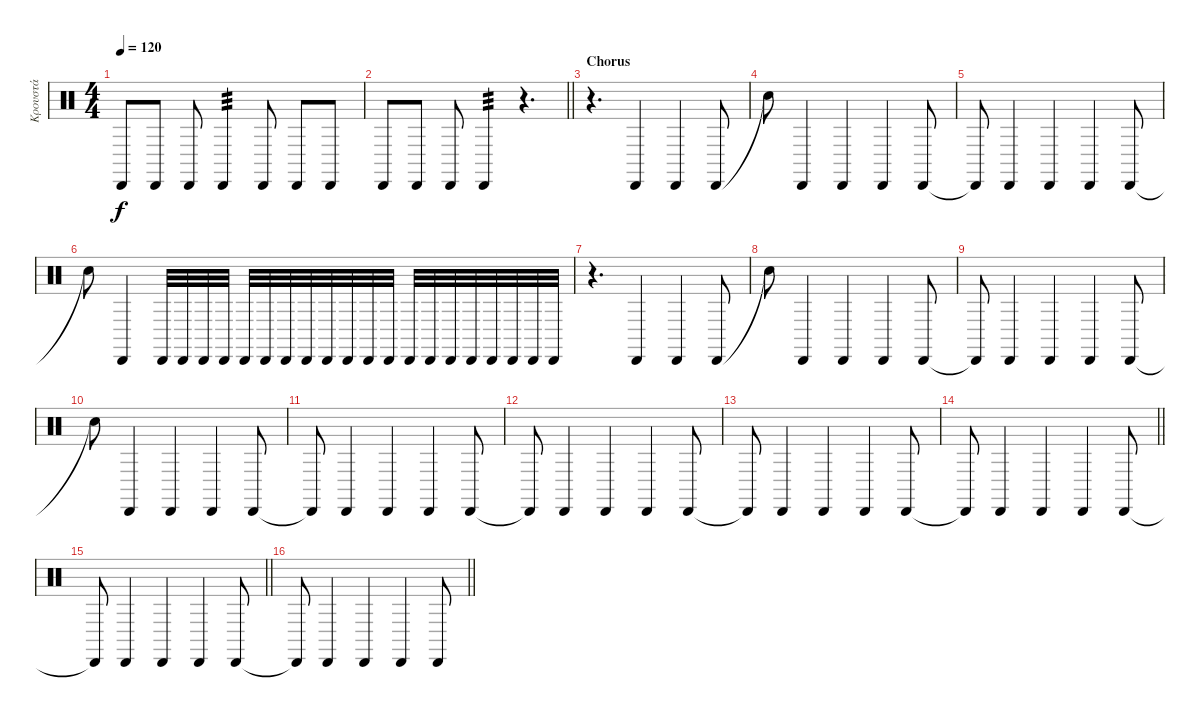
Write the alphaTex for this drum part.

\track ("Κρουστά" "Κρουστά") {instrument percussion}
\staff {score}
\articulation defaults
\ts (4 4)
\tempo 120
\clef neutral
\ks c "Cabasa (hit)".8{dy f} "Cabasa (hit)".8 "Cabasa (hit)".8 "Cabasa (hit)".4{tp 3} "Cabasa (hit)".8 "Cabasa (hit)".8 "Cabasa (hit)".8
|
\barLineRight lightlight "Cabasa (hit)".8 "Cabasa (hit)".8 "Cabasa (hit)".8 "Cabasa (hit)".4{tp 3}
r.4{d} |
\section ("" "Chorus")
r.4{d} "Cabasa (hit)".4 "Cabasa (hit)".4 "Cabasa (hit)".8 |
"Snare (hit)"{t}.8 "Cabasa (hit)".4 "Cabasa (hit)".4 "Cabasa (hit)".4 "Cabasa (hit)".8 |
"Cabasa (hit)"{t}.8 "Cabasa (hit)".4 "Cabasa (hit)".4 "Cabasa (hit)".4 "Cabasa (hit)".8 |
"Snare (hit)"{t}.8 "Cabasa (hit)".4 "Cabasa (hit)".32 "Cabasa (hit)".32 "Cabasa (hit)".32 "Cabasa (hit)".32 "Cabasa (hit)".32 "Cabasa (hit)".32 "Cabasa (hit)".32 "Cabasa (hit)".32 "Cabasa (hit)".32 "Cabasa (hit)".32 "Cabasa (hit)".32 "Cabasa (hit)".32 "Cabasa (hit)".32 "Cabasa (hit)".32 "Cabasa (hit)".32 "Cabasa (hit)".32 "Cabasa (hit)".32 "Cabasa (hit)".32 "Cabasa (hit)".32 "Cabasa (hit)".32 |
r.4{d} "Cabasa (hit)".4 "Cabasa (hit)".4 "Cabasa (hit)".8 |
"Snare (hit)"{t}.8 "Cabasa (hit)".4 "Cabasa (hit)".4 "Cabasa (hit)".4 "Cabasa (hit)".8 |
"Cabasa (hit)"{t}.8 "Cabasa (hit)".4 "Cabasa (hit)".4 "Cabasa (hit)".4 "Cabasa (hit)".8 |
"Snare (hit)"{t}.8 "Cabasa (hit)".4 "Cabasa (hit)".4 "Cabasa (hit)".4 "Cabasa (hit)".8 |
"Cabasa (hit)"{t}.8 "Cabasa (hit)".4 "Cabasa (hit)".4 "Cabasa (hit)".4 "Cabasa (hit)".8 |
"Cabasa (hit)"{t}.8 "Cabasa (hit)".4 "Cabasa (hit)".4 "Cabasa (hit)".4 "Cabasa (hit)".8 |
"Cabasa (hit)"{t}.8 "Cabasa (hit)".4 "Cabasa (hit)".4 "Cabasa (hit)".4 "Cabasa (hit)".8 |
\barLineRight lightlight "Cabasa (hit)"{t}.8 "Cabasa (hit)".4 "Cabasa (hit)".4 "Cabasa (hit)".4 "Cabasa (hit)".8
|
\barLineRight lightlight "Cabasa (hit)"{t}.8 "Cabasa (hit)".4 "Cabasa (hit)".4 "Cabasa (hit)".4 "Cabasa (hit)".8
|
\barLineRight lightlight "Cabasa (hit)"{t}.8 "Cabasa (hit)".4 "Cabasa (hit)".4 "Cabasa (hit)".4 "Cabasa (hit)".8
